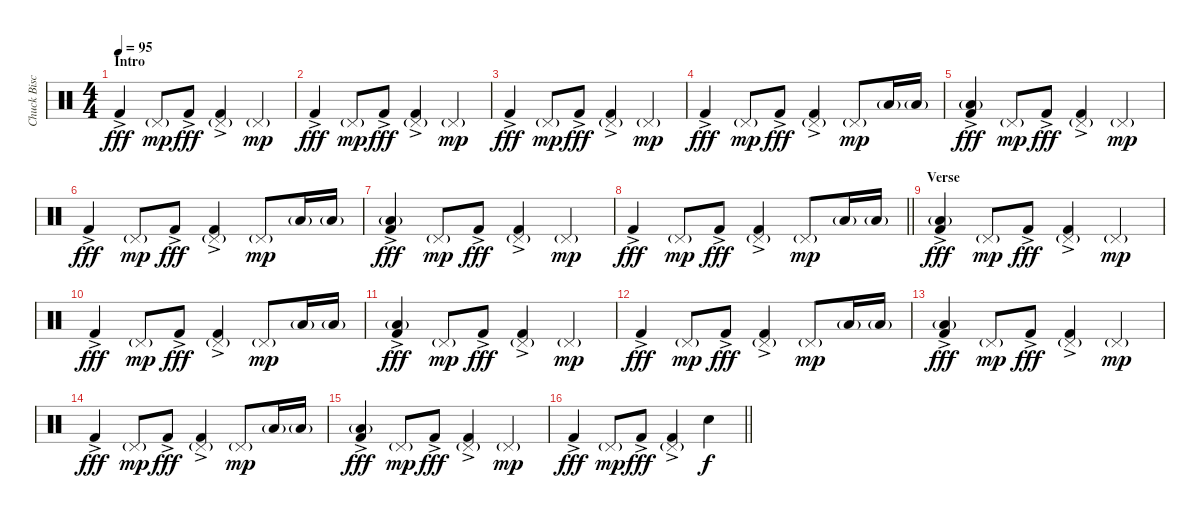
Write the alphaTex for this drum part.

\track ("Chuck Biscuits" "Chuck Bisc") {instrument percussion}
\staff {score}
\articulation defaults
\ts (4 4)
\section ("" "Intro")
\tempo 95
\clef neutral
\ks c "Kick (hit) 2"{ac}.4{dy fff} "Pedal Hi-Hat (hit)"{g}.8{dy mp} "Kick (hit) 2"{ac}.8{dy fff}
("Pedal Hi-Hat (hit)"{g} "Kick (hit) 2"{ac}).4 "Pedal Hi-Hat (hit)"{g}.4{dy mp} |
"Kick (hit) 2"{ac}.4{dy fff} "Pedal Hi-Hat (hit)"{g}.8{dy mp} "Kick (hit) 2"{ac}.8{dy fff} ("Pedal Hi-Hat (hit)"{g} "Kick (hit) 2"{ac}).4 "Pedal Hi-Hat (hit)"{g}.4{dy mp} |
"Kick (hit) 2"{ac}.4{dy fff} "Pedal Hi-Hat (hit)"{g}.8{dy mp} "Kick (hit) 2"{ac}.8{dy fff} ("Pedal Hi-Hat (hit)"{g} "Kick (hit) 2"{ac}).4 "Pedal Hi-Hat (hit)"{g}.4{dy mp} |
"Kick (hit) 2"{ac}.4{dy fff} "Pedal Hi-Hat (hit)"{g}.8{dy mp} "Kick (hit) 2"{ac}.8{dy fff} ("Pedal Hi-Hat (hit)"{g} "Kick (hit) 2"{ac}).4 "Pedal Hi-Hat (hit)"{g}.8{dy mp} "Low Floor Tom (hit)"{g}.16 "Low Floor Tom (hit)"{g}.16 |
("Low Floor Tom (hit)"{g} "Kick (hit) 2"{ac}).4{dy fff} "Pedal Hi-Hat (hit)"{g}.8{dy mp} "Kick (hit) 2"{ac}.8{dy fff} ("Pedal Hi-Hat (hit)"{g} "Kick (hit) 2"{ac}).4 "Pedal Hi-Hat (hit)"{g}.4{dy mp} |
"Kick (hit) 2"{ac}.4{dy fff} "Pedal Hi-Hat (hit)"{g}.8{dy mp} "Kick (hit) 2"{ac}.8{dy fff} ("Pedal Hi-Hat (hit)"{g} "Kick (hit) 2"{ac}).4 "Pedal Hi-Hat (hit)"{g}.8{dy mp} "Low Floor Tom (hit)"{g}.16 "Low Floor Tom (hit)"{g}.16 |
("Low Floor Tom (hit)"{g} "Kick (hit) 2"{ac}).4{dy fff} "Pedal Hi-Hat (hit)"{g}.8{dy mp} "Kick (hit) 2"{ac}.8{dy fff} ("Pedal Hi-Hat (hit)"{g} "Kick (hit) 2"{ac}).4 "Pedal Hi-Hat (hit)"{g}.4{dy mp} |
\barLineRight lightlight "Kick (hit) 2"{ac}.4{dy fff} "Pedal Hi-Hat (hit)"{g}.8{dy mp} "Kick (hit) 2"{ac}.8{dy fff}
("Pedal Hi-Hat (hit)"{g} "Kick (hit) 2"{ac}).4 "Pedal Hi-Hat (hit)"{g}.8{dy mp} "Low Floor Tom (hit)"{g}.16 "Low Floor Tom (hit)"{g}.16 |
\section ("" "Verse")
("Low Floor Tom (hit)"{g} "Kick (hit) 2"{ac}).4{dy fff} "Pedal Hi-Hat (hit)"{g}.8{dy mp} "Kick (hit) 2"{ac}.8{dy fff} ("Pedal Hi-Hat (hit)"{g} "Kick (hit) 2"{ac}).4 "Pedal Hi-Hat (hit)"{g}.4{dy mp} |
"Kick (hit) 2"{ac}.4{dy fff} "Pedal Hi-Hat (hit)"{g}.8{dy mp} "Kick (hit) 2"{ac}.8{dy fff} ("Pedal Hi-Hat (hit)"{g} "Kick (hit) 2"{ac}).4 "Pedal Hi-Hat (hit)"{g}.8{dy mp} "Low Floor Tom (hit)"{g}.16 "Low Floor Tom (hit)"{g}.16 |
("Low Floor Tom (hit)"{g} "Kick (hit) 2"{ac}).4{dy fff} "Pedal Hi-Hat (hit)"{g}.8{dy mp} "Kick (hit) 2"{ac}.8{dy fff} ("Pedal Hi-Hat (hit)"{g} "Kick (hit) 2"{ac}).4 "Pedal Hi-Hat (hit)"{g}.4{dy mp} |
"Kick (hit) 2"{ac}.4{dy fff} "Pedal Hi-Hat (hit)"{g}.8{dy mp} "Kick (hit) 2"{ac}.8{dy fff} ("Pedal Hi-Hat (hit)"{g} "Kick (hit) 2"{ac}).4 "Pedal Hi-Hat (hit)"{g}.8{dy mp} "Low Floor Tom (hit)"{g}.16 "Low Floor Tom (hit)"{g}.16 |
("Low Floor Tom (hit)"{g} "Kick (hit) 2"{ac}).4{dy fff} "Pedal Hi-Hat (hit)"{g}.8{dy mp} "Kick (hit) 2"{ac}.8{dy fff} ("Pedal Hi-Hat (hit)"{g} "Kick (hit) 2"{ac}).4 "Pedal Hi-Hat (hit)"{g}.4{dy mp} |
"Kick (hit) 2"{ac}.4{dy fff} "Pedal Hi-Hat (hit)"{g}.8{dy mp} "Kick (hit) 2"{ac}.8{dy fff} ("Pedal Hi-Hat (hit)"{g} "Kick (hit) 2"{ac}).4 "Pedal Hi-Hat (hit)"{g}.8{dy mp} "Low Floor Tom (hit)"{g}.16 "Low Floor Tom (hit)"{g}.16 |
("Low Floor Tom (hit)"{g} "Kick (hit) 2"{ac}).4{dy fff} "Pedal Hi-Hat (hit)"{g}.8{dy mp} "Kick (hit) 2"{ac}.8{dy fff} ("Pedal Hi-Hat (hit)"{g} "Kick (hit) 2"{ac}).4 "Pedal Hi-Hat (hit)"{g}.4{dy mp} |
\barLineRight lightlight "Kick (hit) 2"{ac}.4{dy fff} "Pedal Hi-Hat (hit)"{g}.8{dy mp} "Kick (hit) 2"{ac}.8{dy fff}
("Pedal Hi-Hat (hit)"{g} "Kick (hit) 2"{ac}).4 "Electric Snare (hit)".4{dy f}
